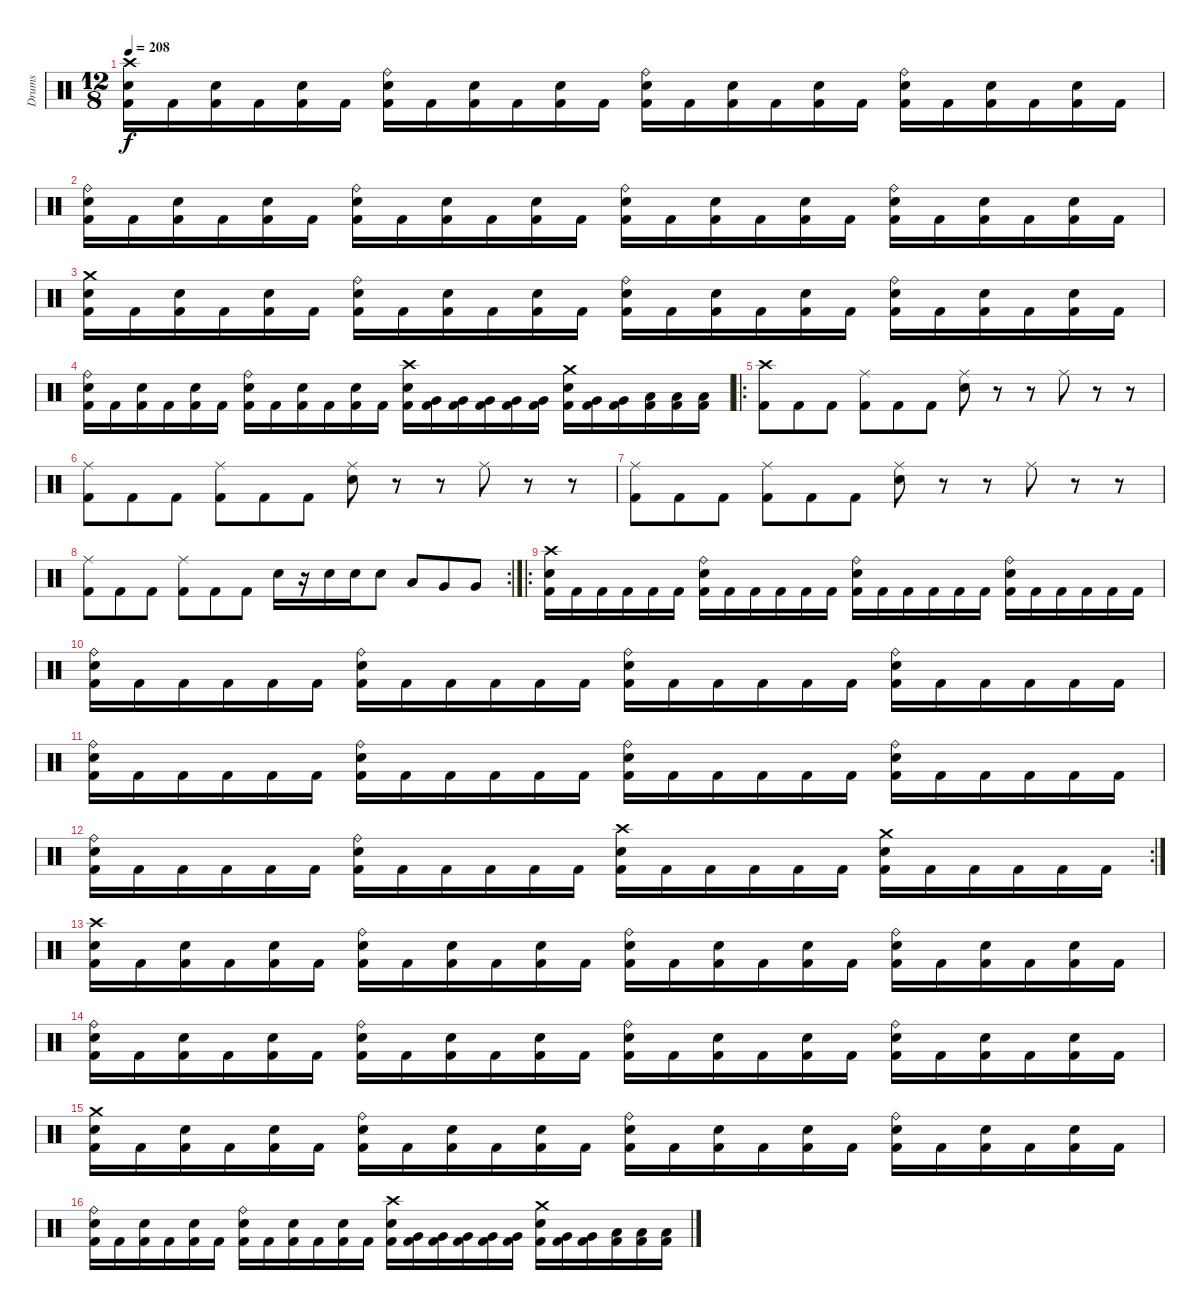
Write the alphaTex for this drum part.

\track ("Drums" "Drums") {instrument percussion}
\staff {score}
\articulation defaults
\ts (12 8)
\tempo 208
\clef neutral
\ks c
("Crash high (hit)" "Electric Snare (hit)" "Kick (hit) 2").16{dy f} "Kick (hit) 2".16 ("Electric Snare (hit)" "Kick (hit) 2").16 "Kick (hit) 2".16 ("Electric Snare (hit)" "Kick (hit) 2").16 "Kick (hit) 2".16 ("Ride (bell)" "Electric Snare (hit)" "Kick (hit) 2").16 "Kick (hit) 2".16 ("Electric Snare (hit)" "Kick (hit) 2").16 "Kick (hit) 2".16 ("Electric Snare (hit)" "Kick (hit) 2").16 "Kick (hit) 2".16 ("Ride (bell)" "Electric Snare (hit)" "Kick (hit) 2").16 "Kick (hit) 2".16 ("Electric Snare (hit)" "Kick (hit) 2").16 "Kick (hit) 2".16 ("Electric Snare (hit)" "Kick (hit) 2").16 "Kick (hit) 2".16 ("Ride (bell)" "Electric Snare (hit)" "Kick (hit) 2").16 "Kick (hit) 2".16 ("Electric Snare (hit)" "Kick (hit) 2").16 "Kick (hit) 2".16 ("Electric Snare (hit)" "Kick (hit) 2").16 "Kick (hit) 2".16 |
("Ride (bell)" "Electric Snare (hit)" "Kick (hit) 2").16 "Kick (hit) 2".16 ("Electric Snare (hit)" "Kick (hit) 2").16 "Kick (hit) 2".16 ("Electric Snare (hit)" "Kick (hit) 2").16 "Kick (hit) 2".16 ("Ride (bell)" "Electric Snare (hit)" "Kick (hit) 2").16 "Kick (hit) 2".16 ("Electric Snare (hit)" "Kick (hit) 2").16 "Kick (hit) 2".16 ("Electric Snare (hit)" "Kick (hit) 2").16 "Kick (hit) 2".16 ("Ride (bell)" "Electric Snare (hit)" "Kick (hit) 2").16 "Kick (hit) 2".16 ("Electric Snare (hit)" "Kick (hit) 2").16 "Kick (hit) 2".16 ("Electric Snare (hit)" "Kick (hit) 2").16 "Kick (hit) 2".16 ("Ride (bell)" "Electric Snare (hit)" "Kick (hit) 2").16 "Kick (hit) 2".16 ("Electric Snare (hit)" "Kick (hit) 2").16 "Kick (hit) 2".16 ("Electric Snare (hit)" "Kick (hit) 2").16 "Kick (hit) 2".16 |
("Crash medium (hit)" "Electric Snare (hit)" "Kick (hit) 2").16 "Kick (hit) 2".16 ("Electric Snare (hit)" "Kick (hit) 2").16 "Kick (hit) 2".16 ("Electric Snare (hit)" "Kick (hit) 2").16 "Kick (hit) 2".16 ("Ride (bell)" "Electric Snare (hit)" "Kick (hit) 2").16 "Kick (hit) 2".16 ("Electric Snare (hit)" "Kick (hit) 2").16 "Kick (hit) 2".16 ("Electric Snare (hit)" "Kick (hit) 2").16 "Kick (hit) 2".16 ("Ride (bell)" "Electric Snare (hit)" "Kick (hit) 2").16 "Kick (hit) 2".16 ("Electric Snare (hit)" "Kick (hit) 2").16 "Kick (hit) 2".16 ("Electric Snare (hit)" "Kick (hit) 2").16 "Kick (hit) 2".16 ("Ride (bell)" "Electric Snare (hit)" "Kick (hit) 2").16 "Kick (hit) 2".16 ("Electric Snare (hit)" "Kick (hit) 2").16 "Kick (hit) 2".16 ("Electric Snare (hit)" "Kick (hit) 2").16 "Kick (hit) 2".16 |
("Ride (bell)" "Electric Snare (hit)" "Kick (hit) 2").16 "Kick (hit) 2".16 ("Electric Snare (hit)" "Kick (hit) 2").16 "Kick (hit) 2".16 ("Electric Snare (hit)" "Kick (hit) 2").16 "Kick (hit) 2".16 ("Ride (bell)" "Electric Snare (hit)" "Kick (hit) 2").16 "Kick (hit) 2".16 ("Electric Snare (hit)" "Kick (hit) 2").16 "Kick (hit) 2".16 ("Electric Snare (hit)" "Kick (hit) 2").16 "Kick (hit) 2".16 ("Crash high (hit)" "Electric Snare (hit)" "Kick (hit) 2").16 ("Very Low Tom (hit)" "Kick (hit) 2").16 ("Very Low Tom (hit)" "Kick (hit) 2").16 ("Very Low Tom (hit)" "Kick (hit) 2").16 ("Very Low Tom (hit)" "Kick (hit) 2").16 ("Very Low Tom (hit)" "Kick (hit) 2").16 ("Crash medium (hit)" "Electric Snare (hit)" "Kick (hit) 2").16 ("Very Low Tom (hit)" "Kick (hit) 2").16 ("Very Low Tom (hit)" "Kick (hit) 2").16 ("Low Floor Tom (hit)" "Kick (hit) 2").16 ("Low Floor Tom (hit)" "Kick (hit) 2").16 ("Low Floor Tom (hit)" "Kick (hit) 2").16 |
\ro
("Crash high (hit)" "Kick (hit) 2").8 "Kick (hit) 2".8 "Kick (hit) 2".8 ("Ride (middle)" "Kick (hit) 2").8 "Kick (hit) 2".8 "Kick (hit) 2".8 ("Ride (middle)" "Electric Snare (hit)").8 r.8 r.8 "Ride (middle)".8 r.8 r.8 |
("Ride (middle)" "Kick (hit) 2").8 "Kick (hit) 2".8 "Kick (hit) 2".8 ("Ride (middle)" "Kick (hit) 2").8 "Kick (hit) 2".8 "Kick (hit) 2".8 ("Ride (middle)" "Electric Snare (hit)").8 r.8 r.8 "Ride (middle)".8 r.8 r.8 |
("Ride (middle)" "Kick (hit) 2").8 "Kick (hit) 2".8 "Kick (hit) 2".8 ("Ride (middle)" "Kick (hit) 2").8 "Kick (hit) 2".8 "Kick (hit) 2".8 ("Ride (middle)" "Electric Snare (hit)").8 r.8 r.8 "Ride (middle)".8 r.8 r.8 |
\rc 2
("Ride (middle)" "Kick (hit) 2").8 "Kick (hit) 2".8 "Kick (hit) 2".8 ("Ride (middle)" "Kick (hit) 2").8 "Kick (hit) 2".8 "Kick (hit) 2".8 "Electric Snare (hit)".16 r.16 "Electric Snare (hit)".16 "Electric Snare (hit)".16 "Electric Snare (hit)".8 "Low Tom (hit)".8 "Very Low Tom (hit)".8 "Very Low Tom (hit)".8 |
\ro
("Crash high (hit)" "Electric Snare (hit)" "Kick (hit) 2").16 "Kick (hit) 2".16 "Kick (hit) 2".16 "Kick (hit) 2".16 "Kick (hit) 2".16 "Kick (hit) 2".16 ("Ride (bell)" "Electric Snare (hit)" "Kick (hit) 2").16 "Kick (hit) 2".16 "Kick (hit) 2".16 "Kick (hit) 2".16 "Kick (hit) 2".16 "Kick (hit) 2".16 ("Ride (bell)" "Electric Snare (hit)" "Kick (hit) 2").16 "Kick (hit) 2".16 "Kick (hit) 2".16 "Kick (hit) 2".16 "Kick (hit) 2".16 "Kick (hit) 2".16 ("Ride (bell)" "Electric Snare (hit)" "Kick (hit) 2").16 "Kick (hit) 2".16 "Kick (hit) 2".16 "Kick (hit) 2".16 "Kick (hit) 2".16 "Kick (hit) 2".16 |
("Ride (bell)" "Electric Snare (hit)" "Kick (hit) 2").16 "Kick (hit) 2".16 "Kick (hit) 2".16 "Kick (hit) 2".16 "Kick (hit) 2".16 "Kick (hit) 2".16 ("Ride (bell)" "Electric Snare (hit)" "Kick (hit) 2").16 "Kick (hit) 2".16 "Kick (hit) 2".16 "Kick (hit) 2".16 "Kick (hit) 2".16 "Kick (hit) 2".16 ("Ride (bell)" "Electric Snare (hit)" "Kick (hit) 2").16 "Kick (hit) 2".16 "Kick (hit) 2".16 "Kick (hit) 2".16 "Kick (hit) 2".16 "Kick (hit) 2".16 ("Ride (bell)" "Electric Snare (hit)" "Kick (hit) 2").16 "Kick (hit) 2".16 "Kick (hit) 2".16 "Kick (hit) 2".16 "Kick (hit) 2".16 "Kick (hit) 2".16 |
("Ride (bell)" "Electric Snare (hit)" "Kick (hit) 2").16 "Kick (hit) 2".16 "Kick (hit) 2".16 "Kick (hit) 2".16 "Kick (hit) 2".16 "Kick (hit) 2".16 ("Ride (bell)" "Electric Snare (hit)" "Kick (hit) 2").16 "Kick (hit) 2".16 "Kick (hit) 2".16 "Kick (hit) 2".16 "Kick (hit) 2".16 "Kick (hit) 2".16 ("Ride (bell)" "Electric Snare (hit)" "Kick (hit) 2").16 "Kick (hit) 2".16 "Kick (hit) 2".16 "Kick (hit) 2".16 "Kick (hit) 2".16 "Kick (hit) 2".16 ("Ride (bell)" "Electric Snare (hit)" "Kick (hit) 2").16 "Kick (hit) 2".16 "Kick (hit) 2".16 "Kick (hit) 2".16 "Kick (hit) 2".16 "Kick (hit) 2".16 |
\rc 2
("Ride (bell)" "Electric Snare (hit)" "Kick (hit) 2").16 "Kick (hit) 2".16 "Kick (hit) 2".16 "Kick (hit) 2".16 "Kick (hit) 2".16 "Kick (hit) 2".16 ("Ride (bell)" "Electric Snare (hit)" "Kick (hit) 2").16 "Kick (hit) 2".16 "Kick (hit) 2".16 "Kick (hit) 2".16 "Kick (hit) 2".16 "Kick (hit) 2".16 ("Crash high (hit)" "Electric Snare (hit)" "Kick (hit) 2").16 "Kick (hit) 2".16 "Kick (hit) 2".16 "Kick (hit) 2".16 "Kick (hit) 2".16 "Kick (hit) 2".16 ("Crash medium (hit)" "Electric Snare (hit)" "Kick (hit) 2").16 "Kick (hit) 2".16 "Kick (hit) 2".16 "Kick (hit) 2".16 "Kick (hit) 2".16 "Kick (hit) 2".16 |
("Crash high (hit)" "Electric Snare (hit)" "Kick (hit) 2").16 "Kick (hit) 2".16 ("Electric Snare (hit)" "Kick (hit) 2").16 "Kick (hit) 2".16 ("Electric Snare (hit)" "Kick (hit) 2").16 "Kick (hit) 2".16 ("Ride (bell)" "Electric Snare (hit)" "Kick (hit) 2").16 "Kick (hit) 2".16 ("Electric Snare (hit)" "Kick (hit) 2").16 "Kick (hit) 2".16 ("Electric Snare (hit)" "Kick (hit) 2").16 "Kick (hit) 2".16 ("Ride (bell)" "Electric Snare (hit)" "Kick (hit) 2").16 "Kick (hit) 2".16 ("Electric Snare (hit)" "Kick (hit) 2").16 "Kick (hit) 2".16 ("Electric Snare (hit)" "Kick (hit) 2").16 "Kick (hit) 2".16 ("Ride (bell)" "Electric Snare (hit)" "Kick (hit) 2").16 "Kick (hit) 2".16 ("Electric Snare (hit)" "Kick (hit) 2").16 "Kick (hit) 2".16 ("Electric Snare (hit)" "Kick (hit) 2").16 "Kick (hit) 2".16 |
("Ride (bell)" "Electric Snare (hit)" "Kick (hit) 2").16 "Kick (hit) 2".16 ("Electric Snare (hit)" "Kick (hit) 2").16 "Kick (hit) 2".16 ("Electric Snare (hit)" "Kick (hit) 2").16 "Kick (hit) 2".16 ("Ride (bell)" "Electric Snare (hit)" "Kick (hit) 2").16 "Kick (hit) 2".16 ("Electric Snare (hit)" "Kick (hit) 2").16 "Kick (hit) 2".16 ("Electric Snare (hit)" "Kick (hit) 2").16 "Kick (hit) 2".16 ("Ride (bell)" "Electric Snare (hit)" "Kick (hit) 2").16 "Kick (hit) 2".16 ("Electric Snare (hit)" "Kick (hit) 2").16 "Kick (hit) 2".16 ("Electric Snare (hit)" "Kick (hit) 2").16 "Kick (hit) 2".16 ("Ride (bell)" "Electric Snare (hit)" "Kick (hit) 2").16 "Kick (hit) 2".16 ("Electric Snare (hit)" "Kick (hit) 2").16 "Kick (hit) 2".16 ("Electric Snare (hit)" "Kick (hit) 2").16 "Kick (hit) 2".16 |
("Crash medium (hit)" "Electric Snare (hit)" "Kick (hit) 2").16 "Kick (hit) 2".16 ("Electric Snare (hit)" "Kick (hit) 2").16 "Kick (hit) 2".16 ("Electric Snare (hit)" "Kick (hit) 2").16 "Kick (hit) 2".16 ("Ride (bell)" "Electric Snare (hit)" "Kick (hit) 2").16 "Kick (hit) 2".16 ("Electric Snare (hit)" "Kick (hit) 2").16 "Kick (hit) 2".16 ("Electric Snare (hit)" "Kick (hit) 2").16 "Kick (hit) 2".16 ("Ride (bell)" "Electric Snare (hit)" "Kick (hit) 2").16 "Kick (hit) 2".16 ("Electric Snare (hit)" "Kick (hit) 2").16 "Kick (hit) 2".16 ("Electric Snare (hit)" "Kick (hit) 2").16 "Kick (hit) 2".16 ("Ride (bell)" "Electric Snare (hit)" "Kick (hit) 2").16 "Kick (hit) 2".16 ("Electric Snare (hit)" "Kick (hit) 2").16 "Kick (hit) 2".16 ("Electric Snare (hit)" "Kick (hit) 2").16 "Kick (hit) 2".16 |
("Ride (bell)" "Electric Snare (hit)" "Kick (hit) 2").16 "Kick (hit) 2".16 ("Electric Snare (hit)" "Kick (hit) 2").16 "Kick (hit) 2".16 ("Electric Snare (hit)" "Kick (hit) 2").16 "Kick (hit) 2".16 ("Ride (bell)" "Electric Snare (hit)" "Kick (hit) 2").16 "Kick (hit) 2".16 ("Electric Snare (hit)" "Kick (hit) 2").16 "Kick (hit) 2".16 ("Electric Snare (hit)" "Kick (hit) 2").16 "Kick (hit) 2".16 ("Crash high (hit)" "Electric Snare (hit)" "Kick (hit) 2").16 ("Very Low Tom (hit)" "Kick (hit) 2").16 ("Very Low Tom (hit)" "Kick (hit) 2").16 ("Very Low Tom (hit)" "Kick (hit) 2").16 ("Very Low Tom (hit)" "Kick (hit) 2").16 ("Very Low Tom (hit)" "Kick (hit) 2").16 ("Crash medium (hit)" "Electric Snare (hit)" "Kick (hit) 2").16 ("Very Low Tom (hit)" "Kick (hit) 2").16 ("Very Low Tom (hit)" "Kick (hit) 2").16 ("Low Floor Tom (hit)" "Kick (hit) 2").16 ("Low Floor Tom (hit)" "Kick (hit) 2").16 ("Low Floor Tom (hit)" "Kick (hit) 2").16
